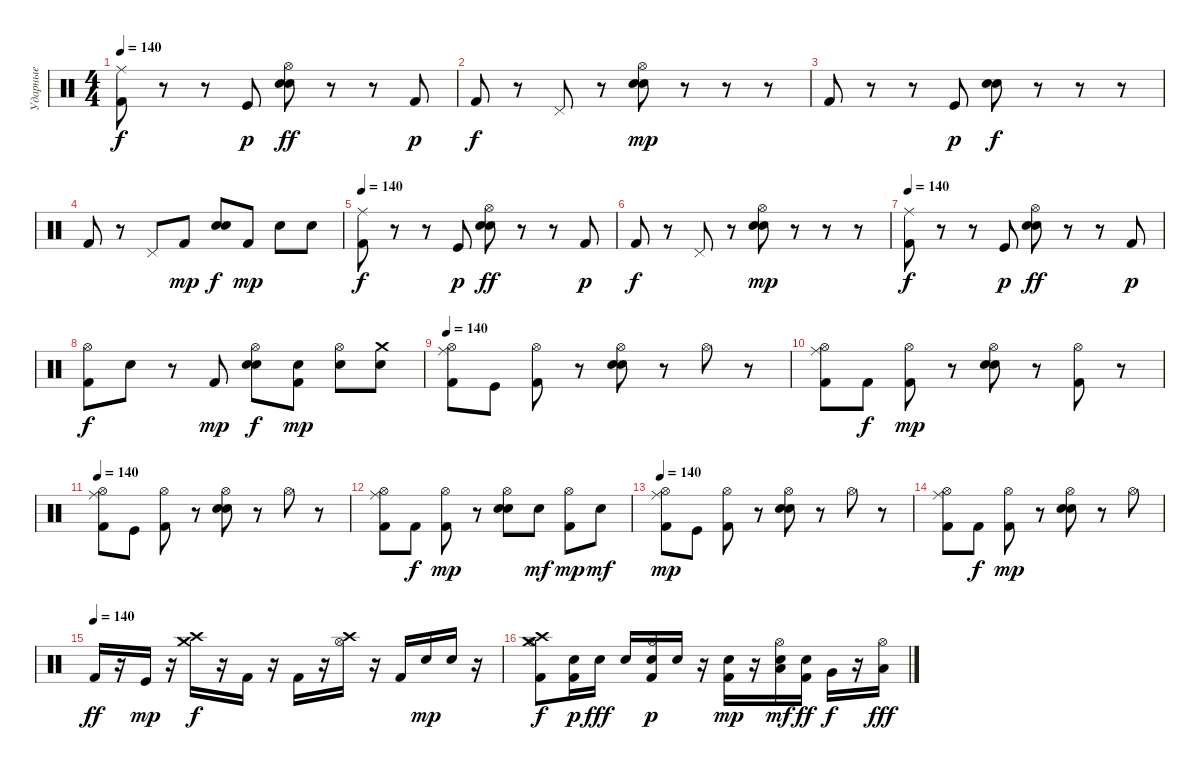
\track ("Ударные" "Ударные") {instrument percussion}
\staff {score}
\articulation defaults
\ts (4 4)
\tempo 140
\clef neutral
\ks c
("Ride (middle)" "Kick (hit) 2").8{dy f} r.8 r.8 "Kick (hit)".8{dy p} ("Hi-Hat (open)" "Snare (hit) 2" "Electric Snare (hit)").8{dy ff} r.8 r.8 "Kick (hit) 2".8{dy p} |
"Kick (hit) 2".8{dy f} r.8 "Pedal Hi-Hat (hit)".8 r.8 ("Hi-Hat (open)" "Snare (hit) 2" "Electric Snare (hit)").8{dy mp} r.8 r.8 r.8 |
"Kick (hit) 2".8 r.8 r.8 "Kick (hit)".8{dy p} ("Snare (hit) 2" "Electric Snare (hit)").8{dy f} r.8 r.8 r.8 |
"Kick (hit) 2".8 r.8 "Pedal Hi-Hat (hit)".8 "Kick (hit) 2".8{dy mp} ("Snare (hit) 2" "Electric Snare (hit)").8{dy f} "Kick (hit) 2".8{dy mp} "Snare (hit) 2".8 "Electric Snare (hit)".8 |
\tempo 140
("Ride (middle)" "Kick (hit) 2").8{dy f} r.8 r.8 "Kick (hit)".8{dy p} ("Hi-Hat (open)" "Snare (hit) 2" "Electric Snare (hit)").8{dy ff} r.8 r.8 "Kick (hit) 2".8{dy p} |
"Kick (hit) 2".8{dy f} r.8 "Pedal Hi-Hat (hit)".8 r.8 ("Hi-Hat (open)" "Snare (hit) 2" "Electric Snare (hit)").8{dy mp} r.8 r.8 r.8 |
\tempo 140
("Ride (middle)" "Kick (hit) 2").8{dy f} r.8 r.8 "Kick (hit)".8{dy p} ("Hi-Hat (open)" "Snare (hit) 2" "Electric Snare (hit)").8{dy ff} r.8 r.8 "Kick (hit) 2".8{dy p} |
("Hi-Hat (open)" "Kick (hit) 2").8{dy f} "Snare (hit) 2".8 r.8 "Kick (hit) 2".8{dy mp} ("Hi-Hat (open)" "Snare (hit) 2" "Electric Snare (hit)").8{dy f} ("Snare (hit)" "Kick (hit) 2").8{dy mp} ("Hi-Hat (open)" "Snare (hit) 2").8 ("Crash medium (hit)" "Electric Snare (hit)").8 |
\tempo 140
("Ride (middle)" "Hi-Hat (open)" "Kick (hit) 2").8 "Kick (hit)".8 ("Hi-Hat (open)" "Kick (hit) 2").8 r.8 ("Hi-Hat (open)" "Electric Snare (hit)" "Snare (hit) 2").8 r.8 "Hi-Hat (open)".8 r.8 |
("Ride (middle)" "Hi-Hat (open)" "Kick (hit) 2").8 "Kick (hit) 2".8{dy f} ("Hi-Hat (open)" "Kick (hit) 2").8{dy mp} r.8 ("Hi-Hat (open)" "Electric Snare (hit)" "Snare (hit) 2").8 r.8 ("Hi-Hat (open)" "Kick (hit) 2").8 r.8 |
\tempo 140
("Ride (middle)" "Hi-Hat (open)" "Kick (hit) 2").8 "Kick (hit)".8 ("Hi-Hat (open)" "Kick (hit) 2").8 r.8 ("Hi-Hat (open)" "Electric Snare (hit)" "Snare (hit) 2").8 r.8 "Hi-Hat (open)".8 r.8 |
("Ride (middle)" "Hi-Hat (open)" "Kick (hit) 2").8 "Kick (hit) 2".8{dy f} ("Hi-Hat (open)" "Kick (hit) 2").8{dy mp} r.8 ("Hi-Hat (open)" "Electric Snare (hit)" "Snare (hit) 2").8 "Snare (hit) 2".8{dy mf} ("Hi-Hat (open)" "Kick (hit) 2").8{dy mp} "Snare (hit) 2".8{dy mf} |
\tempo 140
("Ride (middle)" "Hi-Hat (open)" "Kick (hit) 2").8{dy mp} "Kick (hit)".8 ("Hi-Hat (open)" "Kick (hit) 2").8 r.8 ("Hi-Hat (open)" "Electric Snare (hit)" "Snare (hit) 2").8 r.8 "Hi-Hat (open)".8 r.8 |
("Ride (middle)" "Hi-Hat (open)" "Kick (hit) 2").8 "Kick (hit) 2".8{dy f} ("Hi-Hat (open)" "Kick (hit) 2").8{dy mp} r.8 ("Hi-Hat (open)" "Electric Snare (hit)" "Snare (hit) 2").8 r.8 "Hi-Hat (open)".8 |
\tempo (140)
"Kick (hit) 2".16{dy ff} r.16 "Kick (hit)".16{dy mp} r.16 ("Crash high (hit)" "Crash medium (hit)").16{dy f} r.16 "Kick (hit) 2".16 r.16 "Kick (hit) 2".16 r.16 ("Crash high (hit)" "Hi-Hat (open)").16 r.16 "Kick (hit) 2".16 "Snare (hit) 2".16{dy mp} "Electric Snare (hit)".16 r.16 |
("Crash high (hit)" "Crash medium (hit)" "Hi-Hat (open)" "Kick (hit) 2").8{dy f} ("Snare (hit) 2" "Kick (hit) 2").16{dy p} "Snare (hit) 2".16{dy fff} "Snare (hit) 2".16 ("Hi-Hat (open)" "Snare (hit) 2" "Kick (hit) 2").16{dy p} "Snare (hit) 2".16 r.16 ("Snare (hit) 2" "Kick (hit) 2").16{dy mp} r.16 ("Hi-Hat (open)" "Low Tom (hit)" "Snare (hit) 2").16{dy mf} ("Snare (hit) 2" "Kick (hit) 2").16{dy ff} "Very Low Tom (hit)".16{dy f} r.16 ("Hi-Hat (open)" "Low Floor Tom (hit)").16{dy fff}
